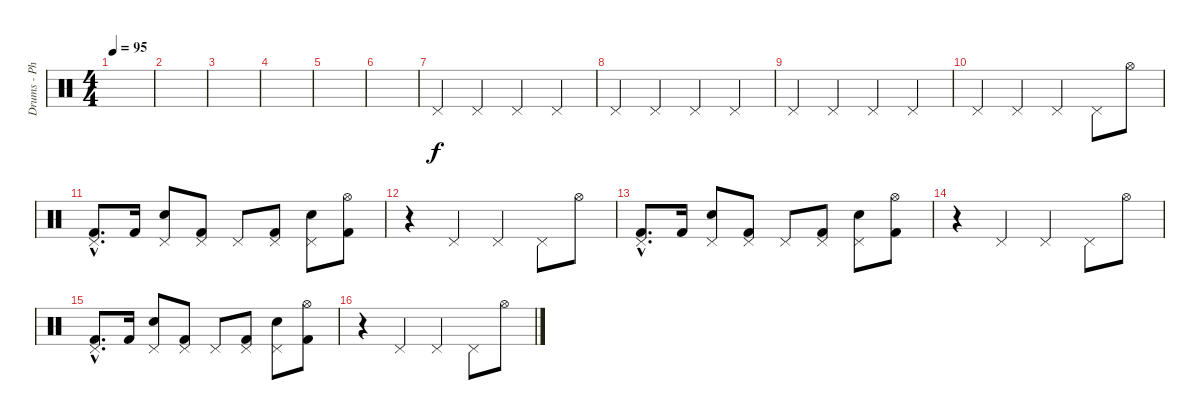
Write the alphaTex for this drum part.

\track ("Drums - Phil Selway" "Drums - Ph") {instrument percussion}
\staff {score}
\articulation defaults
\ts (4 4)
\tempo 95
\clef neutral
\ks c
|
|
|
|
|
|
"Pedal Hi-Hat (hit)".4 "Pedal Hi-Hat (hit)".4 "Pedal Hi-Hat (hit)".4 "Pedal Hi-Hat (hit)".4 |
"Pedal Hi-Hat (hit)".4 "Pedal Hi-Hat (hit)".4 "Pedal Hi-Hat (hit)".4 "Pedal Hi-Hat (hit)".4 |
"Pedal Hi-Hat (hit)".4 "Pedal Hi-Hat (hit)".4 "Pedal Hi-Hat (hit)".4 "Pedal Hi-Hat (hit)".4 |
"Pedal Hi-Hat (hit)".4 "Pedal Hi-Hat (hit)".4 "Pedal Hi-Hat (hit)".4 "Pedal Hi-Hat (hit)".8 "Hi-Hat (open)".8 |
("Pedal Hi-Hat (hit)"{hac} "Kick (hit) 2"{hac}).8{d} "Kick (hit) 2".16 ("Pedal Hi-Hat (hit)" "Snare (hit) 2").8 ("Pedal Hi-Hat (hit)" "Kick (hit) 2").8 "Pedal Hi-Hat (hit)".8 ("Pedal Hi-Hat (hit)" "Kick (hit) 2").8 ("Pedal Hi-Hat (hit)" "Snare (hit) 2").8 ("Hi-Hat (open)" "Kick (hit) 2").8 |
r.4 "Pedal Hi-Hat (hit)".4 "Pedal Hi-Hat (hit)".4 "Pedal Hi-Hat (hit)".8 "Hi-Hat (open)".8 |
("Pedal Hi-Hat (hit)"{hac} "Kick (hit) 2"{hac}).8{d} "Kick (hit) 2".16 ("Pedal Hi-Hat (hit)" "Snare (hit) 2").8 ("Pedal Hi-Hat (hit)" "Kick (hit) 2").8 "Pedal Hi-Hat (hit)".8 ("Pedal Hi-Hat (hit)" "Kick (hit) 2").8 ("Pedal Hi-Hat (hit)" "Snare (hit) 2").8 ("Hi-Hat (open)" "Kick (hit) 2").8 |
r.4 "Pedal Hi-Hat (hit)".4 "Pedal Hi-Hat (hit)".4 "Pedal Hi-Hat (hit)".8 "Hi-Hat (open)".8 |
("Pedal Hi-Hat (hit)"{hac} "Kick (hit) 2"{hac}).8{d} "Kick (hit) 2".16 ("Pedal Hi-Hat (hit)" "Snare (hit) 2").8 ("Pedal Hi-Hat (hit)" "Kick (hit) 2").8 "Pedal Hi-Hat (hit)".8 ("Pedal Hi-Hat (hit)" "Kick (hit) 2").8 ("Pedal Hi-Hat (hit)" "Snare (hit) 2").8 ("Hi-Hat (open)" "Kick (hit) 2").8 |
r.4{volume 12} "Pedal Hi-Hat (hit)".4 "Pedal Hi-Hat (hit)".4 "Pedal Hi-Hat (hit)".8 "Hi-Hat (open)".8
